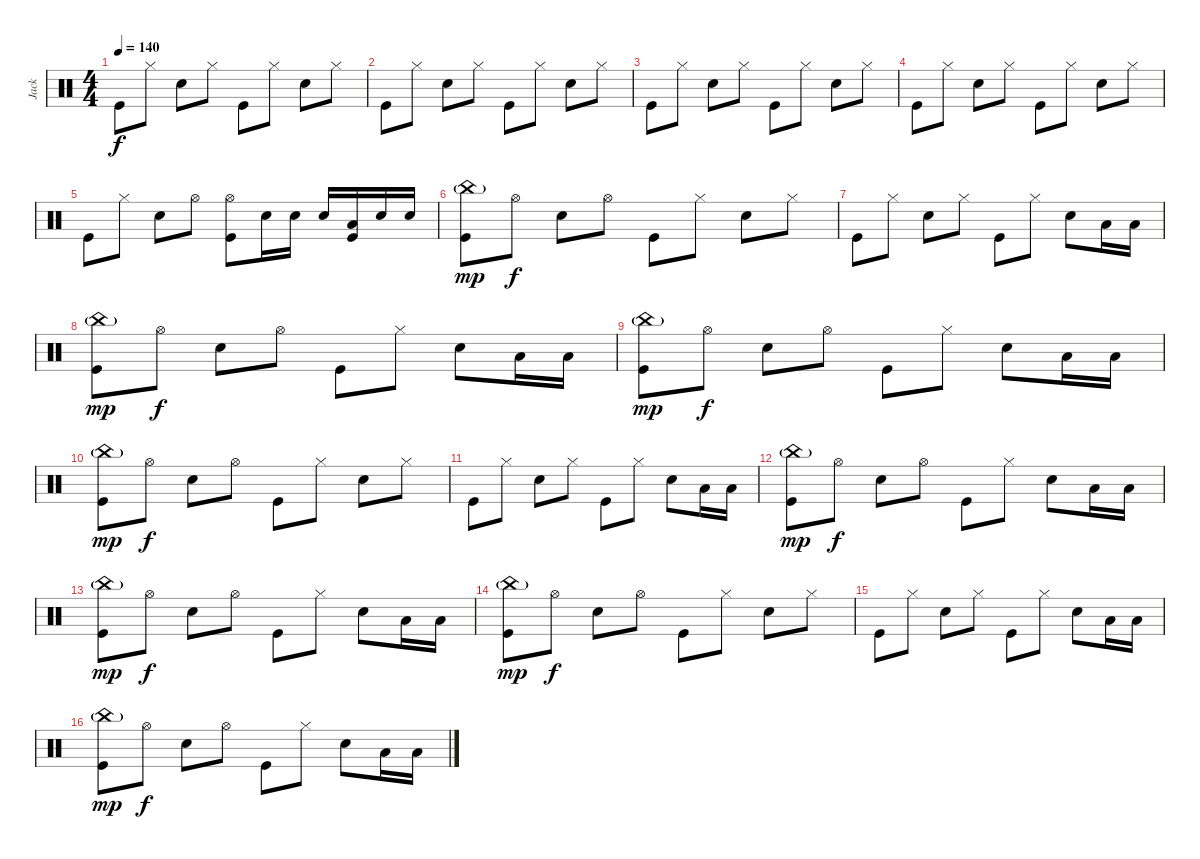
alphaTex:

\track ("Jack" "Jack") {instrument percussion}
\staff {score}
\articulation defaults
\ts (4 4)
\tempo 140
\clef neutral
\ks c "Kick (hit)".8{dy f} "Hi-Hat (closed)".8 "Snare (hit) 2".8 "Hi-Hat (closed)".8 "Kick (hit)".8 "Hi-Hat (closed)".8 "Snare (hit) 2".8 "Hi-Hat (closed)".8
|
"Kick (hit)".8 "Hi-Hat (closed)".8 "Snare (hit) 2".8 "Hi-Hat (closed)".8 "Kick (hit)".8 "Hi-Hat (closed)".8 "Snare (hit) 2".8 "Hi-Hat (closed)".8 |
"Kick (hit)".8 "Hi-Hat (closed)".8 "Snare (hit) 2".8 "Hi-Hat (closed)".8 "Kick (hit)".8 "Hi-Hat (closed)".8 "Snare (hit) 2".8 "Hi-Hat (closed)".8 |
"Kick (hit)".8 "Hi-Hat (closed)".8 "Snare (hit) 2".8 "Hi-Hat (closed)".8 "Kick (hit)".8 "Hi-Hat (closed)".8 "Snare (hit) 2".8 "Hi-Hat (closed)".8 |
"Kick (hit)".8 "Hi-Hat (closed)".8 "Snare (hit) 2".8 "Hi-Hat (open)".8 ("Hi-Hat (open)" "Kick (hit)").8 "Snare (hit) 2".16 "Snare (hit) 2".16 "Snare (hit) 2".16 ("Low Floor Tom (hit)" "Kick (hit)").16 "Snare (hit) 2".16 "Snare (hit) 2".16 |
("China (hit)"{g} "Kick (hit)").8{dy mp} "Hi-Hat (open)".8{dy f} "Snare (hit) 2".8 "Hi-Hat (open)".8 "Kick (hit)".8 "Hi-Hat (closed)".8 "Snare (hit) 2".8 "Hi-Hat (closed)".8 |
"Kick (hit)".8 "Hi-Hat (closed)".8 "Snare (hit) 2".8 "Hi-Hat (closed)".8 "Kick (hit)".8 "Hi-Hat (closed)".8 "Snare (hit) 2".8 "Low Tom (hit)".16 "Low Floor Tom (hit)".16 |
("China (hit)"{g} "Kick (hit)").8{dy mp} "Hi-Hat (open)".8{dy f} "Snare (hit) 2".8 "Hi-Hat (open)".8 "Kick (hit)".8 "Hi-Hat (closed)".8 "Snare (hit) 2".8 "Low Tom (hit)".16 "Low Floor Tom (hit)".16 |
("China (hit)"{g} "Kick (hit)").8{dy mp} "Hi-Hat (open)".8{dy f} "Snare (hit) 2".8 "Hi-Hat (open)".8 "Kick (hit)".8 "Hi-Hat (closed)".8 "Snare (hit) 2".8 "Low Tom (hit)".16 "Low Floor Tom (hit)".16 |
("China (hit)"{g} "Kick (hit)").8{dy mp} "Hi-Hat (open)".8{dy f} "Snare (hit) 2".8 "Hi-Hat (open)".8 "Kick (hit)".8 "Hi-Hat (closed)".8 "Snare (hit) 2".8 "Hi-Hat (closed)".8 |
"Kick (hit)".8 "Hi-Hat (closed)".8 "Snare (hit) 2".8 "Hi-Hat (closed)".8 "Kick (hit)".8 "Hi-Hat (closed)".8 "Snare (hit) 2".8 "Low Tom (hit)".16 "Low Floor Tom (hit)".16 |
("China (hit)"{g} "Kick (hit)").8{dy mp} "Hi-Hat (open)".8{dy f} "Snare (hit) 2".8 "Hi-Hat (open)".8 "Kick (hit)".8 "Hi-Hat (closed)".8 "Snare (hit) 2".8 "Low Tom (hit)".16 "Low Floor Tom (hit)".16 |
("China (hit)"{g} "Kick (hit)").8{dy mp} "Hi-Hat (open)".8{dy f} "Snare (hit) 2".8 "Hi-Hat (open)".8 "Kick (hit)".8 "Hi-Hat (closed)".8 "Snare (hit) 2".8 "Low Tom (hit)".16 "Low Floor Tom (hit)".16 |
("China (hit)"{g} "Kick (hit)").8{dy mp} "Hi-Hat (open)".8{dy f} "Snare (hit) 2".8 "Hi-Hat (open)".8 "Kick (hit)".8 "Hi-Hat (closed)".8 "Snare (hit) 2".8 "Hi-Hat (closed)".8 |
"Kick (hit)".8 "Hi-Hat (closed)".8 "Snare (hit) 2".8 "Hi-Hat (closed)".8 "Kick (hit)".8 "Hi-Hat (closed)".8 "Snare (hit) 2".8 "Low Tom (hit)".16 "Low Floor Tom (hit)".16 |
("China (hit)"{g} "Kick (hit)").8{dy mp} "Hi-Hat (open)".8{dy f} "Snare (hit) 2".8 "Hi-Hat (open)".8 "Kick (hit)".8 "Hi-Hat (closed)".8 "Snare (hit) 2".8 "Low Tom (hit)".16 "Low Floor Tom (hit)".16
